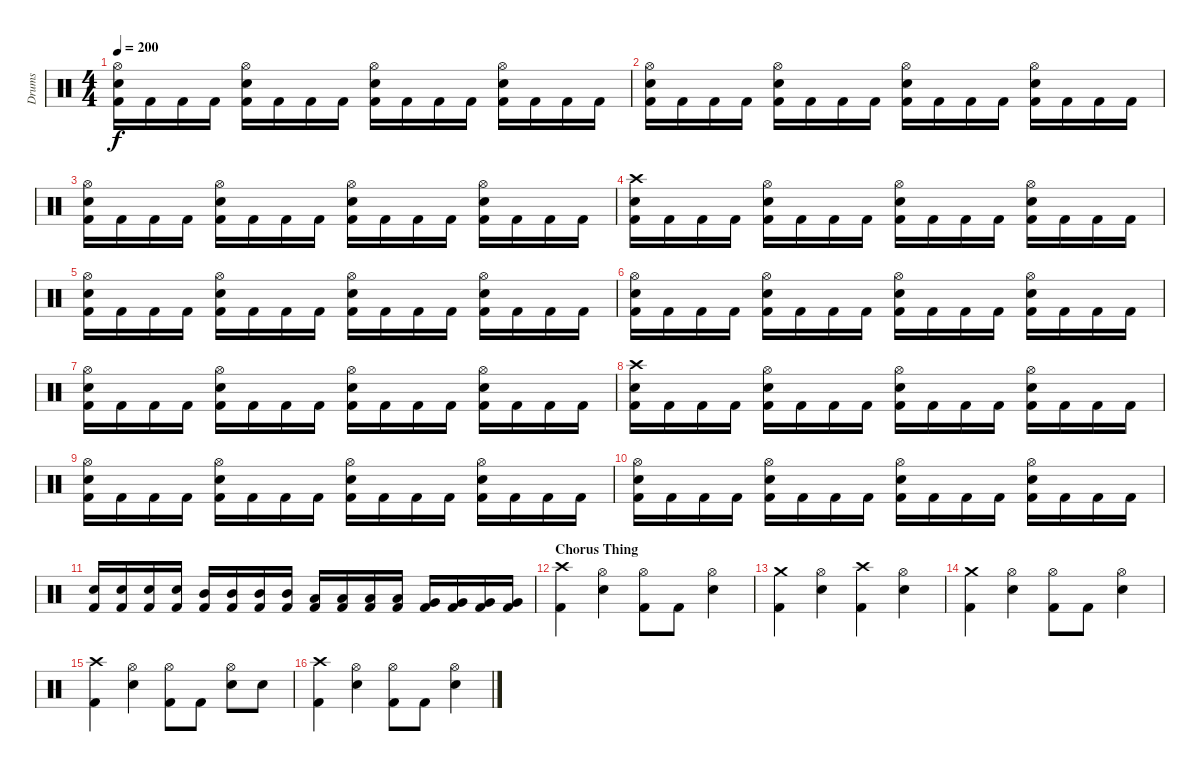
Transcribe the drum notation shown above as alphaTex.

\track ("Drums" "Drums") {instrument percussion}
\staff {score}
\articulation defaults
\ts (4 4)
\tempo 200
\clef neutral
\ks c
("Hi-Hat (open)" "Electric Snare (hit)" "Kick (hit) 2").16{dy f} "Kick (hit) 2".16 "Kick (hit) 2".16 "Kick (hit) 2".16 ("Hi-Hat (open)" "Electric Snare (hit)" "Kick (hit) 2").16 "Kick (hit) 2".16 "Kick (hit) 2".16 "Kick (hit) 2".16 ("Hi-Hat (open)" "Electric Snare (hit)" "Kick (hit) 2").16 "Kick (hit) 2".16 "Kick (hit) 2".16 "Kick (hit) 2".16 ("Hi-Hat (open)" "Electric Snare (hit)" "Kick (hit) 2").16 "Kick (hit) 2".16 "Kick (hit) 2".16 "Kick (hit) 2".16 |
("Hi-Hat (open)" "Electric Snare (hit)" "Kick (hit) 2").16 "Kick (hit) 2".16 "Kick (hit) 2".16 "Kick (hit) 2".16 ("Hi-Hat (open)" "Electric Snare (hit)" "Kick (hit) 2").16 "Kick (hit) 2".16 "Kick (hit) 2".16 "Kick (hit) 2".16 ("Hi-Hat (open)" "Electric Snare (hit)" "Kick (hit) 2").16 "Kick (hit) 2".16 "Kick (hit) 2".16 "Kick (hit) 2".16 ("Hi-Hat (open)" "Electric Snare (hit)" "Kick (hit) 2").16 "Kick (hit) 2".16 "Kick (hit) 2".16 "Kick (hit) 2".16 |
("Hi-Hat (open)" "Electric Snare (hit)" "Kick (hit) 2").16 "Kick (hit) 2".16 "Kick (hit) 2".16 "Kick (hit) 2".16 ("Hi-Hat (open)" "Electric Snare (hit)" "Kick (hit) 2").16 "Kick (hit) 2".16 "Kick (hit) 2".16 "Kick (hit) 2".16 ("Hi-Hat (open)" "Electric Snare (hit)" "Kick (hit) 2").16 "Kick (hit) 2".16 "Kick (hit) 2".16 "Kick (hit) 2".16 ("Hi-Hat (open)" "Electric Snare (hit)" "Kick (hit) 2").16 "Kick (hit) 2".16 "Kick (hit) 2".16 "Kick (hit) 2".16 |
("Crash high (hit)" "Electric Snare (hit)" "Kick (hit) 2").16 "Kick (hit) 2".16 "Kick (hit) 2".16 "Kick (hit) 2".16 ("Hi-Hat (open)" "Electric Snare (hit)" "Kick (hit) 2").16 "Kick (hit) 2".16 "Kick (hit) 2".16 "Kick (hit) 2".16 ("Hi-Hat (open)" "Electric Snare (hit)" "Kick (hit) 2").16 "Kick (hit) 2".16 "Kick (hit) 2".16 "Kick (hit) 2".16 ("Hi-Hat (open)" "Electric Snare (hit)" "Kick (hit) 2").16 "Kick (hit) 2".16 "Kick (hit) 2".16 "Kick (hit) 2".16 |
("Hi-Hat (open)" "Electric Snare (hit)" "Kick (hit) 2").16 "Kick (hit) 2".16 "Kick (hit) 2".16 "Kick (hit) 2".16 ("Hi-Hat (open)" "Electric Snare (hit)" "Kick (hit) 2").16 "Kick (hit) 2".16 "Kick (hit) 2".16 "Kick (hit) 2".16 ("Hi-Hat (open)" "Electric Snare (hit)" "Kick (hit) 2").16 "Kick (hit) 2".16 "Kick (hit) 2".16 "Kick (hit) 2".16 ("Hi-Hat (open)" "Electric Snare (hit)" "Kick (hit) 2").16 "Kick (hit) 2".16 "Kick (hit) 2".16 "Kick (hit) 2".16 |
("Hi-Hat (open)" "Electric Snare (hit)" "Kick (hit) 2").16 "Kick (hit) 2".16 "Kick (hit) 2".16 "Kick (hit) 2".16 ("Hi-Hat (open)" "Electric Snare (hit)" "Kick (hit) 2").16 "Kick (hit) 2".16 "Kick (hit) 2".16 "Kick (hit) 2".16 ("Hi-Hat (open)" "Electric Snare (hit)" "Kick (hit) 2").16 "Kick (hit) 2".16 "Kick (hit) 2".16 "Kick (hit) 2".16 ("Hi-Hat (open)" "Electric Snare (hit)" "Kick (hit) 2").16 "Kick (hit) 2".16 "Kick (hit) 2".16 "Kick (hit) 2".16 |
("Hi-Hat (open)" "Electric Snare (hit)" "Kick (hit) 2").16 "Kick (hit) 2".16 "Kick (hit) 2".16 "Kick (hit) 2".16 ("Hi-Hat (open)" "Electric Snare (hit)" "Kick (hit) 2").16 "Kick (hit) 2".16 "Kick (hit) 2".16 "Kick (hit) 2".16 ("Hi-Hat (open)" "Electric Snare (hit)" "Kick (hit) 2").16 "Kick (hit) 2".16 "Kick (hit) 2".16 "Kick (hit) 2".16 ("Hi-Hat (open)" "Electric Snare (hit)" "Kick (hit) 2").16 "Kick (hit) 2".16 "Kick (hit) 2".16 "Kick (hit) 2".16 |
("Crash high (hit)" "Electric Snare (hit)" "Kick (hit) 2").16 "Kick (hit) 2".16 "Kick (hit) 2".16 "Kick (hit) 2".16 ("Hi-Hat (open)" "Electric Snare (hit)" "Kick (hit) 2").16 "Kick (hit) 2".16 "Kick (hit) 2".16 "Kick (hit) 2".16 ("Hi-Hat (open)" "Electric Snare (hit)" "Kick (hit) 2").16 "Kick (hit) 2".16 "Kick (hit) 2".16 "Kick (hit) 2".16 ("Hi-Hat (open)" "Electric Snare (hit)" "Kick (hit) 2").16 "Kick (hit) 2".16 "Kick (hit) 2".16 "Kick (hit) 2".16 |
("Hi-Hat (open)" "Electric Snare (hit)" "Kick (hit) 2").16 "Kick (hit) 2".16 "Kick (hit) 2".16 "Kick (hit) 2".16 ("Hi-Hat (open)" "Electric Snare (hit)" "Kick (hit) 2").16 "Kick (hit) 2".16 "Kick (hit) 2".16 "Kick (hit) 2".16 ("Hi-Hat (open)" "Electric Snare (hit)" "Kick (hit) 2").16 "Kick (hit) 2".16 "Kick (hit) 2".16 "Kick (hit) 2".16 ("Hi-Hat (open)" "Electric Snare (hit)" "Kick (hit) 2").16 "Kick (hit) 2".16 "Kick (hit) 2".16 "Kick (hit) 2".16 |
("Hi-Hat (open)" "Electric Snare (hit)" "Kick (hit) 2").16 "Kick (hit) 2".16 "Kick (hit) 2".16 "Kick (hit) 2".16 ("Hi-Hat (open)" "Electric Snare (hit)" "Kick (hit) 2").16 "Kick (hit) 2".16 "Kick (hit) 2".16 "Kick (hit) 2".16 ("Hi-Hat (open)" "Electric Snare (hit)" "Kick (hit) 2").16 "Kick (hit) 2".16 "Kick (hit) 2".16 "Kick (hit) 2".16 ("Hi-Hat (open)" "Electric Snare (hit)" "Kick (hit) 2").16 "Kick (hit) 2".16 "Kick (hit) 2".16 "Kick (hit) 2".16 |
("Electric Snare (hit)" "Kick (hit) 2").16 ("Electric Snare (hit)" "Kick (hit) 2").16 ("Electric Snare (hit)" "Kick (hit) 2").16 ("Electric Snare (hit)" "Kick (hit) 2").16 ("Mid Tom (hit)" "Kick (hit) 2").16 ("Mid Tom (hit)" "Kick (hit) 2").16 ("Mid Tom (hit)" "Kick (hit) 2").16 ("Mid Tom (hit)" "Kick (hit) 2").16 ("Low Tom (hit)" "Kick (hit) 2").16 ("Low Tom (hit)" "Kick (hit) 2").16 ("Low Tom (hit)" "Kick (hit) 2").16 ("Low Tom (hit)" "Kick (hit) 2").16 ("Very Low Tom (hit)" "Kick (hit) 2").16 ("Very Low Tom (hit)" "Kick (hit) 2").16 ("Very Low Tom (hit)" "Kick (hit) 2").16 ("Very Low Tom (hit)" "Kick (hit) 2").16 |
\section ("" "Chorus Thing")
("Crash high (hit)" "Kick (hit) 2").4 ("Hi-Hat (open)" "Electric Snare (hit)").4 ("Hi-Hat (open)" "Kick (hit) 2").8 "Kick (hit) 2".8 ("Hi-Hat (open)" "Electric Snare (hit)").4 |
("Crash medium (hit)" "Kick (hit) 2").4 ("Hi-Hat (open)" "Electric Snare (hit)").4 ("Crash high (hit)" "Kick (hit) 2").4 ("Hi-Hat (open)" "Electric Snare (hit)").4 |
("Crash medium (hit)" "Kick (hit) 2").4 ("Hi-Hat (open)" "Electric Snare (hit)").4 ("Hi-Hat (open)" "Kick (hit) 2").8 "Kick (hit) 2".8 ("Hi-Hat (open)" "Electric Snare (hit)").4 |
("Crash high (hit)" "Kick (hit) 2").4 ("Hi-Hat (open)" "Electric Snare (hit)").4 ("Hi-Hat (open)" "Kick (hit) 2").8 "Kick (hit) 2".8 ("Hi-Hat (open)" "Electric Snare (hit)").8 "Electric Snare (hit)".8 |
("Crash high (hit)" "Kick (hit) 2").4 ("Hi-Hat (open)" "Electric Snare (hit)").4 ("Hi-Hat (open)" "Kick (hit) 2").8 "Kick (hit) 2".8 ("Hi-Hat (open)" "Electric Snare (hit)").4
